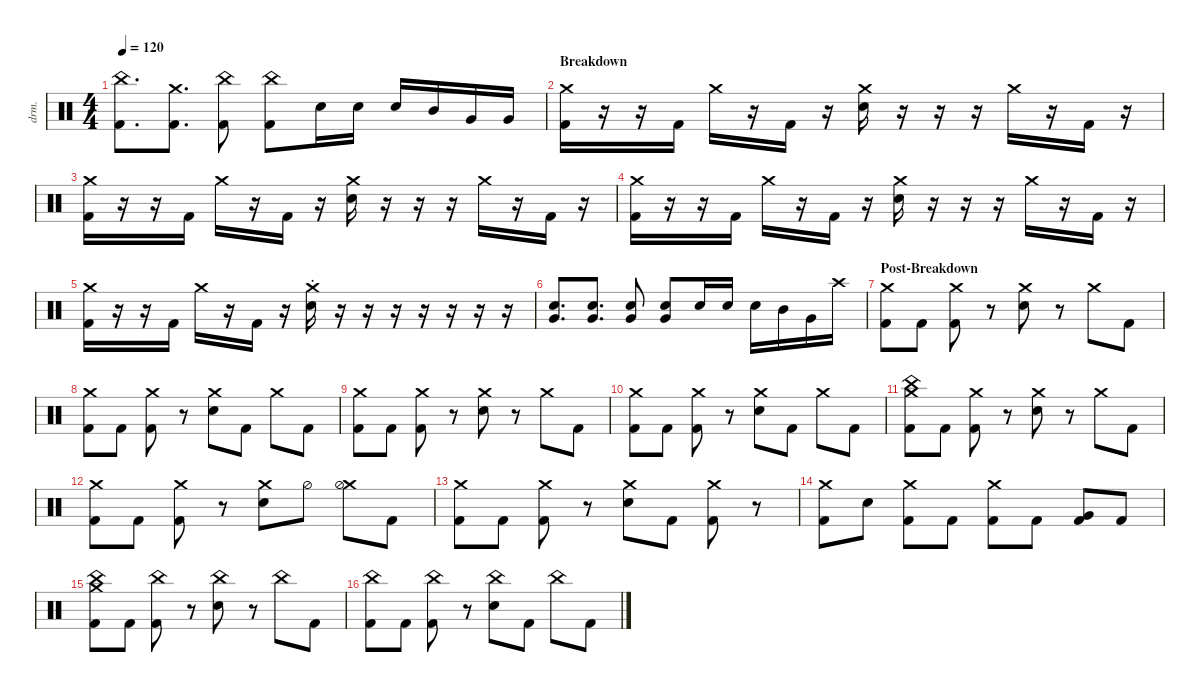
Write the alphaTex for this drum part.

\defaultSystemsLayout 4
\hideDynamics
\bracketExtendMode nobrackets
\track ("Drums - Mario" "drm.") {instrument percussion}
\staff {score}
\articulation defaults
\ts (4 4)
\tempo 120
\clef neutral
\ks c
("China (hit)" "Kick (hit) 2").8{d dy ff beam Down} ("Kick (hit) 2" "Crash medium (hit)").8{d beam Down} ("China (hit)" "Kick (hit) 2").8{beam Down} ("Kick (hit) 2" "China (hit)").8{beam Down} "Snare (hit) 2".16{beam Down} "Snare (hit) 2".16{beam Down} "Snare (hit) 2".16{beam Up} "Mid Tom (hit)".16{beam Up} "Very Low Tom (hit)".16{beam Up} "Very Low Tom (hit)".16{beam Up} |
\section ("" "Breakdown")
("Kick (hit) 2" "Crash medium (hit)").16{beam Down} r.16{beam Down} r.16{beam Down} "Kick (hit) 2".16{beam Down} "Crash medium (hit)".16{beam Down} r.16{beam Down} "Kick (hit) 2".16{beam Down} r.16{beam Down} ("Snare (hit) 2" "Crash medium (hit)").16{beam Down} r.16{beam Down} r.16{beam Down} r.16{beam Down} "Crash medium (hit)".16{beam Down} r.16{beam Down} "Kick (hit) 2".16{beam Down} r.16{beam Down} |
("Kick (hit) 2" "Crash medium (hit)").16{beam Down} r.16{beam Down} r.16{beam Down} "Kick (hit) 2".16{beam Down} "Crash medium (hit)".16{beam Down} r.16{beam Down} "Kick (hit) 2".16{beam Down} r.16{beam Down} ("Snare (hit) 2" "Crash medium (hit)").16{beam Down} r.16{beam Down} r.16{beam Down} r.16{beam Down} "Crash medium (hit)".16{beam Down} r.16{beam Down} "Kick (hit) 2".16{beam Down} r.16{beam Down} |
("Kick (hit) 2" "Crash medium (hit)").16{beam Down} r.16{beam Down} r.16{beam Down} "Kick (hit) 2".16{beam Down} "Crash medium (hit)".16{beam Down} r.16{beam Down} "Kick (hit) 2".16{beam Down} r.16{beam Down} ("Snare (hit) 2" "Crash medium (hit)").16{beam Down} r.16{beam Down} r.16{beam Down} r.16{beam Down} "Crash medium (hit)".16{beam Down} r.16{beam Down} "Kick (hit) 2".16{beam Down} r.16{beam Down} |
("Kick (hit) 2" "Crash medium (hit)").16{beam Down} r.16{beam Down} r.16{beam Down} "Kick (hit) 2".16{beam Down} "Crash medium (hit)".16{beam Down} r.16{beam Down} "Kick (hit) 2".16{beam Down} r.16{beam Down} ("Snare (hit) 2" "Crash medium (choke)").16{beam Down} r.16{beam Down} r.16{beam Down} r.16{beam Down} r.16{beam Down} r.16{beam Down} r.16{beam Down} r.16{beam Down} |
("Snare (hit) 2" "Very Low Tom (hit)").8{d beam Up} ("Snare (hit) 2" "Very Low Tom (hit)").8{d beam Up} ("Snare (hit) 2" "Very Low Tom (hit)").8{beam Up} ("Snare (hit) 2" "Very Low Tom (hit)").8{beam Up} "Snare (hit) 2".16{beam Up} "Snare (hit) 2".16{beam Up} "Snare (hit) 2".16{beam Down} "Mid Tom (hit)".16{beam Down} "Very Low Tom (hit)".16{beam Down} "Crash high (hit)".16{beam Down} |
\section ("" "Post-Breakdown")
("Crash medium (hit)" "Kick (hit) 2").8{beam Down} "Kick (hit) 2".8{beam Down} ("Kick (hit) 2" "Crash medium (hit)").8{beam Down} r.8{beam Down} ("Snare (hit) 2" "Crash medium (hit)").8{beam Down} r.8{beam Down} "Crash medium (hit)".8{beam Down} "Kick (hit) 2".8{beam Down} |
("Crash medium (hit)" "Kick (hit) 2").8{beam Down} "Kick (hit) 2".8{beam Down} ("Kick (hit) 2" "Crash medium (hit)").8{beam Down} r.8{beam Down} ("Snare (hit) 2" "Crash medium (hit)").8{beam Down} "Kick (hit) 2".8{beam Down} "Crash medium (hit)".8{beam Down} "Kick (hit) 2".8{beam Down} |
("Crash medium (hit)" "Kick (hit) 2").8{beam Down} "Kick (hit) 2".8{beam Down} ("Kick (hit) 2" "Crash medium (hit)").8{beam Down} r.8{beam Down} ("Snare (hit) 2" "Crash medium (hit)").8{beam Down} r.8{beam Down} "Crash medium (hit)".8{beam Down} "Kick (hit) 2".8{beam Down} |
("Crash medium (hit)" "Kick (hit) 2").8{beam Down} "Kick (hit) 2".8{beam Down} ("Kick (hit) 2" "Crash medium (hit)").8{beam Down} r.8{beam Down} ("Snare (hit) 2" "Crash medium (hit)").8{beam Down} "Kick (hit) 2".8{beam Down} "Crash medium (hit)".8{beam Down} "Kick (hit) 2".8{beam Down} |
("Crash medium (hit)" "Kick (hit) 2" "China (hit)").8{beam Down} "Kick (hit) 2".8{beam Down} ("Kick (hit) 2" "Crash medium (hit)").8{beam Down} r.8{beam Down} ("Snare (hit) 2" "Crash medium (hit)").8{beam Down} r.8{beam Down} "Crash medium (hit)".8{beam Down} "Kick (hit) 2".8{beam Down} |
("Crash medium (hit)" "Kick (hit) 2").8{beam Down} "Kick (hit) 2".8{beam Down} ("Kick (hit) 2" "Crash medium (hit)").8{beam Down} r.8{beam Down} ("Snare (hit) 2" "Crash medium (hit)").8{beam Down} "Hi-Hat (half)".8{beam Down} ("Crash medium (hit)" "Hi-Hat (half)").8{beam Down} "Kick (hit) 2".8{beam Down} |
("Crash medium (hit)" "Kick (hit) 2").8{beam Down} "Kick (hit) 2".8{beam Down} ("Kick (hit) 2" "Crash medium (hit)").8{beam Down} r.8{beam Down} ("Snare (hit) 2" "Crash medium (hit)").8{beam Down} "Kick (hit) 2".8{beam Down} ("Crash medium (hit)" "Kick (hit) 2").8{beam Down} r.8{beam Down} |
("Crash medium (hit)" "Kick (hit) 2").8{beam Down} "Snare (hit) 2".8{beam Down} ("Kick (hit) 2" "Crash medium (hit)").8{beam Down} "Kick (hit) 2".8{beam Down} ("Crash medium (hit)" "Kick (hit) 2").8{beam Down} "Kick (hit) 2".8{beam Down} ("Kick (hit) 2" "Very Low Tom (hit)").8{beam Up} "Kick (hit) 2".8{beam Up} |
("Kick (hit) 2" "China (hit)" "Crash medium (hit)").8{beam Down} "Kick (hit) 2".8{beam Down} ("Kick (hit) 2" "China (hit)").8{beam Down} r.8{beam Down} ("Snare (hit) 2" "China (hit)").8{beam Down} r.8{beam Down} "China (hit)".8{beam Down} "Kick (hit) 2".8{beam Down} |
("Kick (hit) 2" "China (hit)").8{beam Down} "Kick (hit) 2".8{beam Down} ("Kick (hit) 2" "China (hit)").8{beam Down} r.8{beam Down} ("Snare (hit) 2" "China (hit)").8{beam Down} "Kick (hit) 2".8{beam Down} "China (hit)".8{beam Down} "Kick (hit) 2".8{beam Down}
